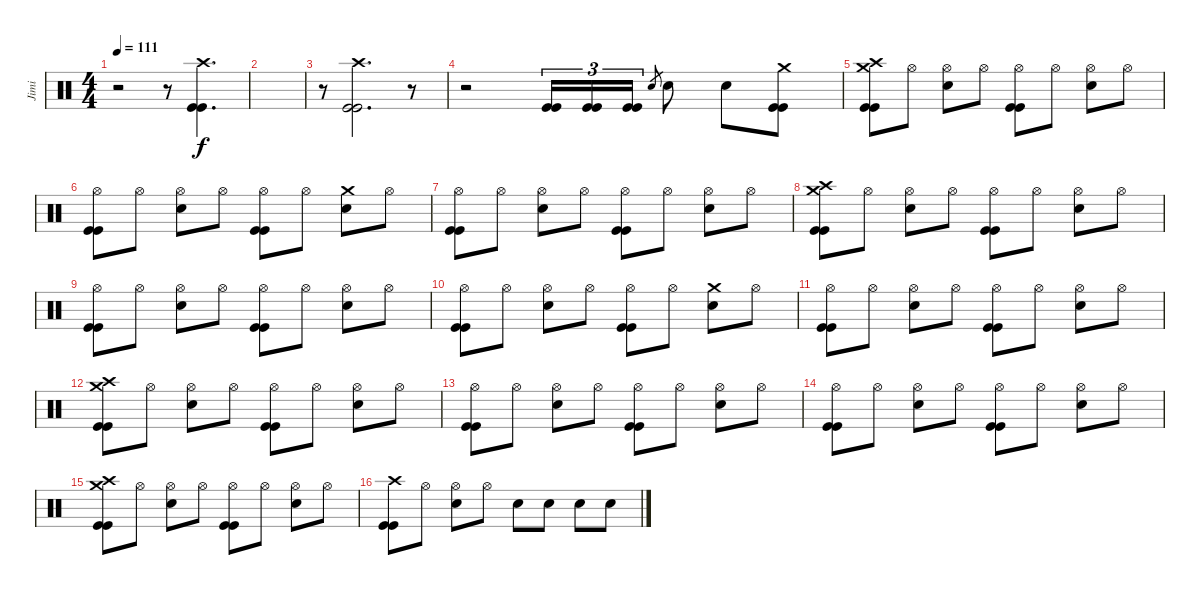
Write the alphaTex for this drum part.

\track ("Jimi" "Jimi") {instrument percussion}
\staff {score}
\articulation defaults
\ts (4 4)
\tempo 111
\clef neutral
\ks c
r.2{dy f} r.8 ("Crash high (hit)" "Kick (hit)" "Kick (hit)").4{d} |
|
r.8 ("Crash high (hit)" "Kick (hit)" "Kick (hit)").2{d} r.8 |
r.2 ("Kick (hit)" "Kick (hit)").16{tu (3 2)} ("Kick (hit)" "Kick (hit)").16{tu (3 2)} ("Kick (hit)" "Kick (hit)").16{tu (3 2)} "Electric Snare (hit)".8{gr} "Electric Snare (hit)".8 "Electric Snare (hit)".8 ("Crash medium (hit)" "Kick (hit)" "Kick (hit)").8 |
("Crash high (hit)" "Crash medium (hit)" "Kick (hit)" "Kick (hit)").8 "Hi-Hat (open)".8 ("Hi-Hat (open)" "Electric Snare (hit)").8 "Hi-Hat (open)".8 ("Hi-Hat (open)" "Kick (hit)" "Kick (hit)").8 "Hi-Hat (open)".8 ("Hi-Hat (open)" "Electric Snare (hit)").8 "Hi-Hat (open)".8 |
("Hi-Hat (open)" "Kick (hit)" "Kick (hit)").8 "Hi-Hat (open)".8 ("Hi-Hat (open)" "Electric Snare (hit)").8 "Hi-Hat (open)".8 ("Hi-Hat (open)" "Kick (hit)" "Kick (hit)").8 "Hi-Hat (open)".8 ("Crash medium (hit)" "Electric Snare (hit)").8 "Hi-Hat (open)".8 |
("Hi-Hat (open)" "Kick (hit)" "Kick (hit)").8 "Hi-Hat (open)".8 ("Hi-Hat (open)" "Electric Snare (hit)").8 "Hi-Hat (open)".8 ("Hi-Hat (open)" "Kick (hit)" "Kick (hit)").8 "Hi-Hat (open)".8 ("Hi-Hat (open)" "Electric Snare (hit)").8 "Hi-Hat (open)".8 |
("Crash high (hit)" "Crash medium (hit)" "Kick (hit)" "Kick (hit)").8 "Hi-Hat (open)".8 ("Hi-Hat (open)" "Electric Snare (hit)").8 "Hi-Hat (open)".8 ("Hi-Hat (open)" "Kick (hit)" "Kick (hit)").8 "Hi-Hat (open)".8 ("Hi-Hat (open)" "Electric Snare (hit)").8 "Hi-Hat (open)".8 |
("Hi-Hat (open)" "Kick (hit)" "Kick (hit)").8 "Hi-Hat (open)".8 ("Hi-Hat (open)" "Electric Snare (hit)").8 "Hi-Hat (open)".8 ("Hi-Hat (open)" "Kick (hit)" "Kick (hit)").8 "Hi-Hat (open)".8 ("Hi-Hat (open)" "Electric Snare (hit)").8 "Hi-Hat (open)".8 |
("Hi-Hat (open)" "Kick (hit)" "Kick (hit)").8 "Hi-Hat (open)".8 ("Hi-Hat (open)" "Electric Snare (hit)").8 "Hi-Hat (open)".8 ("Hi-Hat (open)" "Kick (hit)" "Kick (hit)").8 "Hi-Hat (open)".8 ("Crash medium (hit)" "Electric Snare (hit)").8 "Hi-Hat (open)".8 |
("Hi-Hat (open)" "Kick (hit)" "Kick (hit)").8 "Hi-Hat (open)".8 ("Hi-Hat (open)" "Electric Snare (hit)").8 "Hi-Hat (open)".8 ("Hi-Hat (open)" "Kick (hit)" "Kick (hit)").8 "Hi-Hat (open)".8 ("Hi-Hat (open)" "Electric Snare (hit)").8 "Hi-Hat (open)".8 |
("Crash high (hit)" "Crash medium (hit)" "Kick (hit)" "Kick (hit)").8 "Hi-Hat (open)".8 ("Hi-Hat (open)" "Electric Snare (hit)").8 "Hi-Hat (open)".8 ("Hi-Hat (open)" "Kick (hit)" "Kick (hit)").8 "Hi-Hat (open)".8 ("Hi-Hat (open)" "Electric Snare (hit)").8 "Hi-Hat (open)".8 |
("Hi-Hat (open)" "Kick (hit)" "Kick (hit)").8 "Hi-Hat (open)".8 ("Hi-Hat (open)" "Electric Snare (hit)").8 "Hi-Hat (open)".8 ("Hi-Hat (open)" "Kick (hit)" "Kick (hit)").8 "Hi-Hat (open)".8 ("Hi-Hat (open)" "Electric Snare (hit)").8 "Hi-Hat (open)".8 |
("Hi-Hat (open)" "Kick (hit)" "Kick (hit)").8 "Hi-Hat (open)".8 ("Hi-Hat (open)" "Electric Snare (hit)").8 "Hi-Hat (open)".8 ("Hi-Hat (open)" "Kick (hit)" "Kick (hit)").8 "Hi-Hat (open)".8 ("Hi-Hat (open)" "Electric Snare (hit)").8 "Hi-Hat (open)".8 |
("Crash high (hit)" "Crash medium (hit)" "Kick (hit)" "Kick (hit)").8 "Hi-Hat (open)".8 ("Hi-Hat (open)" "Electric Snare (hit)").8 "Hi-Hat (open)".8 ("Hi-Hat (open)" "Kick (hit)" "Kick (hit)").8 "Hi-Hat (open)".8 ("Hi-Hat (open)" "Electric Snare (hit)").8 "Hi-Hat (open)".8 |
("Crash high (hit)" "Kick (hit)" "Kick (hit)").8 "Hi-Hat (open)".8 ("Hi-Hat (open)" "Electric Snare (hit)").8 "Hi-Hat (open)".8 "Electric Snare (hit)".8 "Electric Snare (hit)".8 "Electric Snare (hit)".8 "Electric Snare (hit)".8
